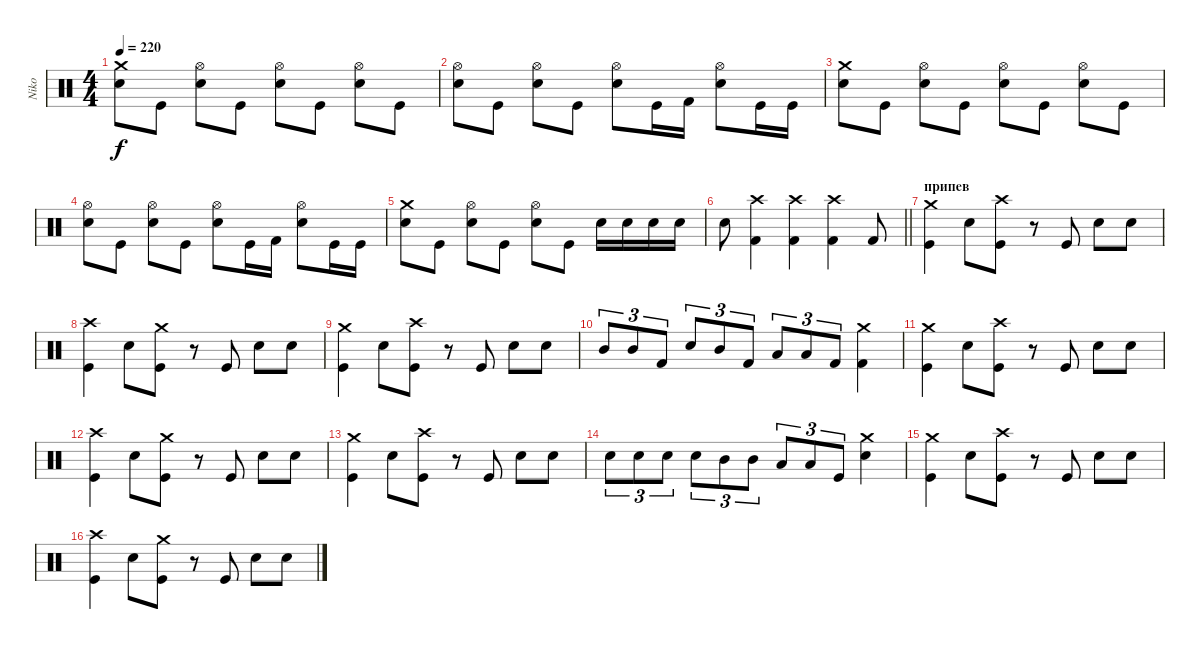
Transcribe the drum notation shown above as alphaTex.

\track ("Niko" "Niko") {instrument percussion}
\staff {score}
\articulation defaults
\ts (4 4)
\tempo 220
\clef neutral
\ks c
("Crash medium (hit)" "Snare (hit) 2").8{dy f} "Kick (hit)".8 ("Hi-Hat (open)" "Snare (hit) 2").8 "Kick (hit)".8 ("Hi-Hat (open)" "Snare (hit) 2").8 "Kick (hit)".8 ("Hi-Hat (open)" "Snare (hit) 2").8 "Kick (hit)".8 |
("Hi-Hat (open)" "Snare (hit) 2").8 "Kick (hit)".8 ("Hi-Hat (open)" "Snare (hit) 2").8 "Kick (hit)".8 ("Hi-Hat (open)" "Snare (hit) 2").8 "Kick (hit)".16 "Kick (hit) 2".16 ("Hi-Hat (open)" "Snare (hit) 2").8 "Kick (hit)".16 "Kick (hit)".16 |
("Crash medium (hit)" "Snare (hit) 2").8 "Kick (hit)".8 ("Hi-Hat (open)" "Snare (hit) 2").8 "Kick (hit)".8 ("Hi-Hat (open)" "Snare (hit) 2").8 "Kick (hit)".8 ("Hi-Hat (open)" "Snare (hit) 2").8 "Kick (hit)".8 |
("Hi-Hat (open)" "Snare (hit) 2").8 "Kick (hit)".8 ("Hi-Hat (open)" "Snare (hit) 2").8 "Kick (hit)".8 ("Hi-Hat (open)" "Snare (hit) 2").8 "Kick (hit)".16 "Kick (hit) 2".16 ("Hi-Hat (open)" "Snare (hit) 2").8 "Kick (hit)".16 "Kick (hit)".16 |
("Crash medium (hit)" "Snare (hit) 2").8 "Kick (hit)".8 ("Hi-Hat (open)" "Snare (hit) 2").8 "Kick (hit)".8 ("Hi-Hat (open)" "Snare (hit) 2").8 "Kick (hit)".8 "Snare (hit) 2".16 "Snare (hit) 2".16 "Snare (hit) 2".16 "Snare (hit) 2".16 |
\barLineRight lightlight "Snare (hit) 2".8
("Crash high (hit)" "Kick (hit) 2").4 ("Crash high (hit)" "Kick (hit) 2").4 ("Crash high (hit)" "Kick (hit) 2").4 "Kick (hit) 2".8 |
\section ("" "припев")
("Crash medium (hit)" "Kick (hit)").4 "Snare (hit) 2".8 ("Crash high (hit)" "Kick (hit)").8 r.8 "Kick (hit)".8 "Snare (hit) 2".8 "Snare (hit) 2".8 |
("Crash high (hit)" "Kick (hit)").4 "Snare (hit) 2".8 ("Crash medium (hit)" "Kick (hit)").8 r.8 "Kick (hit)".8 "Snare (hit) 2".8 "Snare (hit) 2".8 |
("Crash medium (hit)" "Kick (hit)").4 "Snare (hit) 2".8 ("Crash high (hit)" "Kick (hit)").8 r.8 "Kick (hit)".8 "Snare (hit) 2".8 "Snare (hit) 2".8 |
"Mid Tom (hit)".8{tu (3 2)} "Mid Tom (hit)".8{tu (3 2)} "Kick (hit) 2".8{tu (3 2)} "Snare (hit) 2".8{tu (3 2)} "Mid Tom (hit)".8{tu (3 2)} "Kick (hit) 2".8{tu (3 2)} "Low Tom (hit)".8{tu (3 2)} "Low Tom (hit)".8{tu (3 2)} "Kick (hit) 2".8{tu (3 2)} ("Crash medium (hit)" "Kick (hit) 2").4 |
("Crash medium (hit)" "Kick (hit)").4 "Snare (hit) 2".8 ("Crash high (hit)" "Kick (hit)").8 r.8 "Kick (hit)".8 "Snare (hit) 2".8 "Snare (hit) 2".8 |
("Crash high (hit)" "Kick (hit)").4 "Snare (hit) 2".8 ("Crash medium (hit)" "Kick (hit)").8 r.8 "Kick (hit)".8 "Snare (hit) 2".8 "Snare (hit) 2".8 |
("Crash medium (hit)" "Kick (hit)").4 "Snare (hit) 2".8 ("Crash high (hit)" "Kick (hit)").8 r.8 "Kick (hit)".8 "Snare (hit) 2".8 "Snare (hit) 2".8 |
"Snare (hit) 2".8{tu (3 2)} "Snare (hit) 2".8{tu (3 2)} "Snare (hit) 2".8{tu (3 2)} "Snare (hit) 2".8{tu (3 2)} "Mid Tom (hit)".8{tu (3 2)} "Mid Tom (hit)".8{tu (3 2)} "Low Tom (hit)".8{tu (3 2)} "Low Tom (hit)".8{tu (3 2)} "Kick (hit)".8{tu (3 2)} ("Crash medium (hit)" "Snare (hit) 2").4 |
("Crash medium (hit)" "Kick (hit)").4 "Snare (hit) 2".8 ("Crash high (hit)" "Kick (hit)").8 r.8 "Kick (hit)".8 "Snare (hit) 2".8 "Snare (hit) 2".8 |
("Crash high (hit)" "Kick (hit)").4 "Snare (hit) 2".8 ("Crash medium (hit)" "Kick (hit)").8 r.8 "Kick (hit)".8 "Snare (hit) 2".8 "Snare (hit) 2".8
